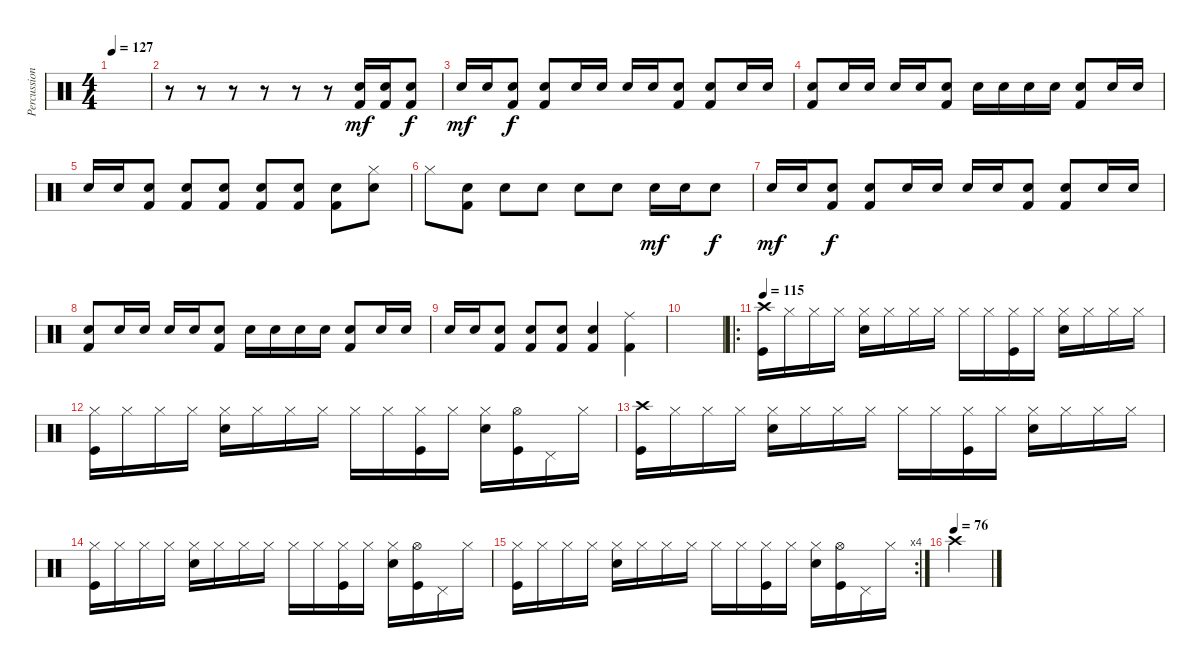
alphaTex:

\track ("Percussion" "Percussion") {instrument percussion}
\staff {score}
\articulation defaults
\ts (4 4)
\tempo 127
\clef neutral
\ks c
|
r.8 r.8 r.8 r.8 r.8 r.8 ("Snare (hit) 2" "Kick (hit) 2").16{dy mf} ("Snare (hit) 2" "Kick (hit) 2").16 ("Snare (hit) 2" "Kick (hit) 2").8{dy f} |
"Snare (hit) 2".16{dy mf} "Snare (hit) 2".16 ("Snare (hit) 2" "Kick (hit) 2").8{dy f} ("Snare (hit) 2" "Kick (hit) 2").8 "Snare (hit) 2".16 "Snare (hit) 2".16 "Snare (hit) 2".16 "Snare (hit) 2".16 ("Snare (hit) 2" "Kick (hit) 2").8 ("Snare (hit) 2" "Kick (hit) 2").8 "Snare (hit) 2".16 "Snare (hit) 2".16 |
("Snare (hit) 2" "Kick (hit) 2").8 "Snare (hit) 2".16 "Snare (hit) 2".16 "Snare (hit) 2".16 "Snare (hit) 2".16 ("Snare (hit) 2" "Kick (hit) 2").8 "Snare (hit) 2".16 "Snare (hit) 2".16 "Snare (hit) 2".16 "Snare (hit) 2".16 ("Snare (hit) 2" "Kick (hit) 2").8 "Snare (hit) 2".16 "Snare (hit) 2".16 |
"Snare (hit) 2".16 "Snare (hit) 2".16 ("Snare (hit) 2" "Kick (hit) 2").8 ("Snare (hit) 2" "Kick (hit) 2").8 ("Snare (hit) 2" "Kick (hit) 2").8 ("Snare (hit) 2" "Kick (hit) 2").8 ("Snare (hit) 2" "Kick (hit) 2").8 ("Snare (hit) 2" "Kick (hit) 2").8 ("Hi-Hat (closed)" "Electric Snare (hit)").8 |
"Hi-Hat (closed)".8 ("Snare (hit) 2" "Kick (hit) 2").8 "Snare (hit) 2".8 "Snare (hit) 2".8 "Snare (hit) 2".8 "Snare (hit) 2".8 "Snare (hit) 2".16{dy mf} "Snare (hit) 2".16 "Snare (hit) 2".8{dy f} |
"Snare (hit) 2".16{dy mf} "Snare (hit) 2".16 ("Snare (hit) 2" "Kick (hit) 2").8{dy f} ("Snare (hit) 2" "Kick (hit) 2").8 "Snare (hit) 2".16 "Snare (hit) 2".16 "Snare (hit) 2".16 "Snare (hit) 2".16 ("Snare (hit) 2" "Kick (hit) 2").8 ("Snare (hit) 2" "Kick (hit) 2").8 "Snare (hit) 2".16 "Snare (hit) 2".16 |
("Snare (hit) 2" "Kick (hit) 2").8 "Snare (hit) 2".16 "Snare (hit) 2".16 "Snare (hit) 2".16 "Snare (hit) 2".16 ("Snare (hit) 2" "Kick (hit) 2").8 "Snare (hit) 2".16 "Snare (hit) 2".16 "Snare (hit) 2".16 "Snare (hit) 2".16 ("Snare (hit) 2" "Kick (hit) 2").8 "Snare (hit) 2".16 "Snare (hit) 2".16 |
"Snare (hit) 2".16 "Snare (hit) 2".16 ("Snare (hit) 2" "Kick (hit) 2").8 ("Snare (hit) 2" "Kick (hit) 2").8 ("Snare (hit) 2" "Kick (hit) 2").8 ("Snare (hit) 2" "Kick (hit) 2").4 ("Ride (middle)" "Kick (hit) 2").4 |
|
\ro
\tempo 115
("Crash high (hit)" "Kick (hit)").16 "Hi-Hat (closed)".16 "Hi-Hat (closed)".16 "Hi-Hat (closed)".16 ("Hi-Hat (closed)" "Electric Snare (hit)").16 "Hi-Hat (closed)".16 "Hi-Hat (closed)".16 "Hi-Hat (closed)".16 "Hi-Hat (closed)".16 "Hi-Hat (closed)".16 ("Hi-Hat (closed)" "Kick (hit)").16 "Hi-Hat (closed)".16 ("Hi-Hat (closed)" "Electric Snare (hit)").16 "Hi-Hat (closed)".16 "Hi-Hat (closed)".16 "Hi-Hat (closed)".16 |
("Hi-Hat (closed)" "Kick (hit)").16 "Hi-Hat (closed)".16 "Hi-Hat (closed)".16 "Hi-Hat (closed)".16 ("Hi-Hat (closed)" "Electric Snare (hit)").16 "Hi-Hat (closed)".16 "Hi-Hat (closed)".16 "Hi-Hat (closed)".16 "Hi-Hat (closed)".16 "Hi-Hat (closed)".16 ("Hi-Hat (closed)" "Kick (hit)").16 "Hi-Hat (closed)".16 ("Hi-Hat (closed)" "Electric Snare (hit)").16 ("Hi-Hat (open)" "Kick (hit)").16 "Pedal Hi-Hat (hit)".16 "Hi-Hat (closed)".16 |
("Crash high (hit)" "Kick (hit)").16 "Hi-Hat (closed)".16 "Hi-Hat (closed)".16 "Hi-Hat (closed)".16 ("Hi-Hat (closed)" "Electric Snare (hit)").16 "Hi-Hat (closed)".16 "Hi-Hat (closed)".16 "Hi-Hat (closed)".16 "Hi-Hat (closed)".16 "Hi-Hat (closed)".16 ("Hi-Hat (closed)" "Kick (hit)").16 "Hi-Hat (closed)".16 ("Hi-Hat (closed)" "Electric Snare (hit)").16 "Hi-Hat (closed)".16 "Hi-Hat (closed)".16 "Hi-Hat (closed)".16 |
("Hi-Hat (closed)" "Kick (hit)").16 "Hi-Hat (closed)".16 "Hi-Hat (closed)".16 "Hi-Hat (closed)".16 ("Hi-Hat (closed)" "Electric Snare (hit)").16 "Hi-Hat (closed)".16 "Hi-Hat (closed)".16 "Hi-Hat (closed)".16 "Hi-Hat (closed)".16 "Hi-Hat (closed)".16 ("Hi-Hat (closed)" "Kick (hit)").16 "Hi-Hat (closed)".16 ("Hi-Hat (closed)" "Electric Snare (hit)").16 ("Hi-Hat (open)" "Kick (hit)").16 "Pedal Hi-Hat (hit)".16 "Hi-Hat (closed)".16 |
\rc 4
("Hi-Hat (closed)" "Kick (hit)").16 "Hi-Hat (closed)".16 "Hi-Hat (closed)".16 "Hi-Hat (closed)".16 ("Hi-Hat (closed)" "Electric Snare (hit)").16 "Hi-Hat (closed)".16 "Hi-Hat (closed)".16 "Hi-Hat (closed)".16 "Hi-Hat (closed)".16 "Hi-Hat (closed)".16 ("Hi-Hat (closed)" "Kick (hit)").16 "Hi-Hat (closed)".16 ("Hi-Hat (closed)" "Electric Snare (hit)").16 ("Hi-Hat (open)" "Kick (hit)").16 "Pedal Hi-Hat (hit)".16 "Hi-Hat (closed)".16 |
\tempo (76)
"Crash high (hit)".4
